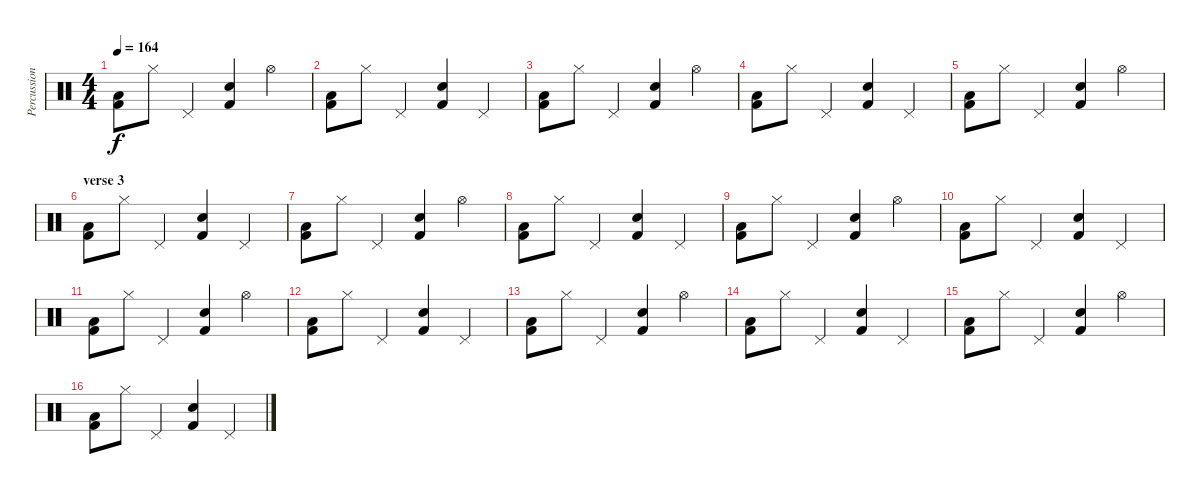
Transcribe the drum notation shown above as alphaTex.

\track ("Percussion" "Percussion") {instrument percussion}
\staff {score}
\articulation defaults
\ts (4 4)
\tempo 164
\clef neutral
\ks c
("Low Tom (hit)" "Kick (hit) 2").8{dy f} "Hi-Hat (closed)".8 "Pedal Hi-Hat (hit)".4 ("Snare (hit) 2" "Kick (hit) 2").4 "Hi-Hat (open)".4 |
("Low Tom (hit)" "Kick (hit) 2").8 "Hi-Hat (closed)".8 "Pedal Hi-Hat (hit)".4 ("Snare (hit) 2" "Kick (hit) 2").4 "Pedal Hi-Hat (hit)".4 |
("Low Tom (hit)" "Kick (hit) 2").8 "Hi-Hat (closed)".8 "Pedal Hi-Hat (hit)".4 ("Snare (hit) 2" "Kick (hit) 2").4 "Hi-Hat (open)".4 |
("Low Tom (hit)" "Kick (hit) 2").8 "Hi-Hat (closed)".8 "Pedal Hi-Hat (hit)".4 ("Snare (hit) 2" "Kick (hit) 2").4 "Pedal Hi-Hat (hit)".4 |
("Low Tom (hit)" "Kick (hit) 2").8 "Hi-Hat (closed)".8 "Pedal Hi-Hat (hit)".4 ("Snare (hit) 2" "Kick (hit) 2").4 "Hi-Hat (open)".4 |
\section ("" "verse 3")
("Low Tom (hit)" "Kick (hit) 2").8 "Hi-Hat (closed)".8 "Pedal Hi-Hat (hit)".4 ("Snare (hit) 2" "Kick (hit) 2").4 "Pedal Hi-Hat (hit)".4 |
("Low Tom (hit)" "Kick (hit) 2").8 "Hi-Hat (closed)".8 "Pedal Hi-Hat (hit)".4 ("Snare (hit) 2" "Kick (hit) 2").4 "Hi-Hat (open)".4 |
("Low Tom (hit)" "Kick (hit) 2").8 "Hi-Hat (closed)".8 "Pedal Hi-Hat (hit)".4 ("Snare (hit) 2" "Kick (hit) 2").4 "Pedal Hi-Hat (hit)".4 |
("Low Tom (hit)" "Kick (hit) 2").8 "Hi-Hat (closed)".8 "Pedal Hi-Hat (hit)".4 ("Snare (hit) 2" "Kick (hit) 2").4 "Hi-Hat (open)".4 |
("Low Tom (hit)" "Kick (hit) 2").8 "Hi-Hat (closed)".8 "Pedal Hi-Hat (hit)".4 ("Snare (hit) 2" "Kick (hit) 2").4 "Pedal Hi-Hat (hit)".4 |
("Low Tom (hit)" "Kick (hit) 2").8 "Hi-Hat (closed)".8 "Pedal Hi-Hat (hit)".4 ("Snare (hit) 2" "Kick (hit) 2").4 "Hi-Hat (open)".4 |
("Low Tom (hit)" "Kick (hit) 2").8 "Hi-Hat (closed)".8 "Pedal Hi-Hat (hit)".4 ("Snare (hit) 2" "Kick (hit) 2").4 "Pedal Hi-Hat (hit)".4 |
("Low Tom (hit)" "Kick (hit) 2").8 "Hi-Hat (closed)".8 "Pedal Hi-Hat (hit)".4 ("Snare (hit) 2" "Kick (hit) 2").4 "Hi-Hat (open)".4 |
("Low Tom (hit)" "Kick (hit) 2").8 "Hi-Hat (closed)".8 "Pedal Hi-Hat (hit)".4 ("Snare (hit) 2" "Kick (hit) 2").4 "Pedal Hi-Hat (hit)".4 |
("Low Tom (hit)" "Kick (hit) 2").8 "Hi-Hat (closed)".8 "Pedal Hi-Hat (hit)".4 ("Snare (hit) 2" "Kick (hit) 2").4 "Hi-Hat (open)".4 |
("Low Tom (hit)" "Kick (hit) 2").8 "Hi-Hat (closed)".8 "Pedal Hi-Hat (hit)".4 ("Snare (hit) 2" "Kick (hit) 2").4 "Pedal Hi-Hat (hit)".4
